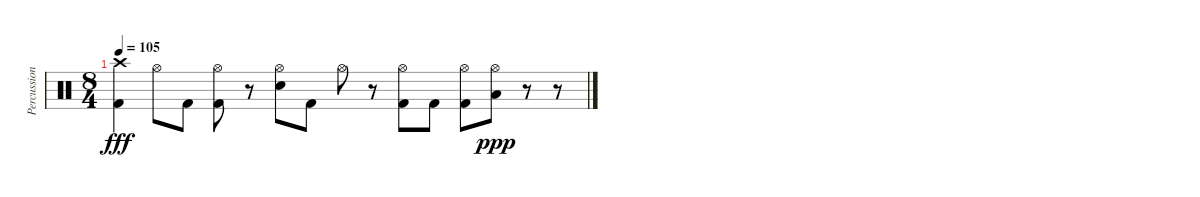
\track ("Percussions" "Percussion") {instrument percussion}
\staff {score}
\articulation defaults
\ts (8 4)
\tempo 105
\clef neutral
\ks c
("Crash high (hit)" "Kick (hit) 2").4{dy fff} "Hi-Hat (open)".8 "Kick (hit) 2".8 ("Hi-Hat (open)" "Kick (hit) 2").8 r.8 ("Hi-Hat (open)" "Snare (hit) 2").8 "Kick (hit) 2".8 "Hi-Hat (open)".8 r.8 ("Hi-Hat (open)" "Kick (hit) 2").8 "Kick (hit) 2".8 ("Hi-Hat (open)" "Kick (hit) 2").8 ("Hi-Hat (open)" "Low Tom (hit)").8{dy ppp} r.8 r.8
